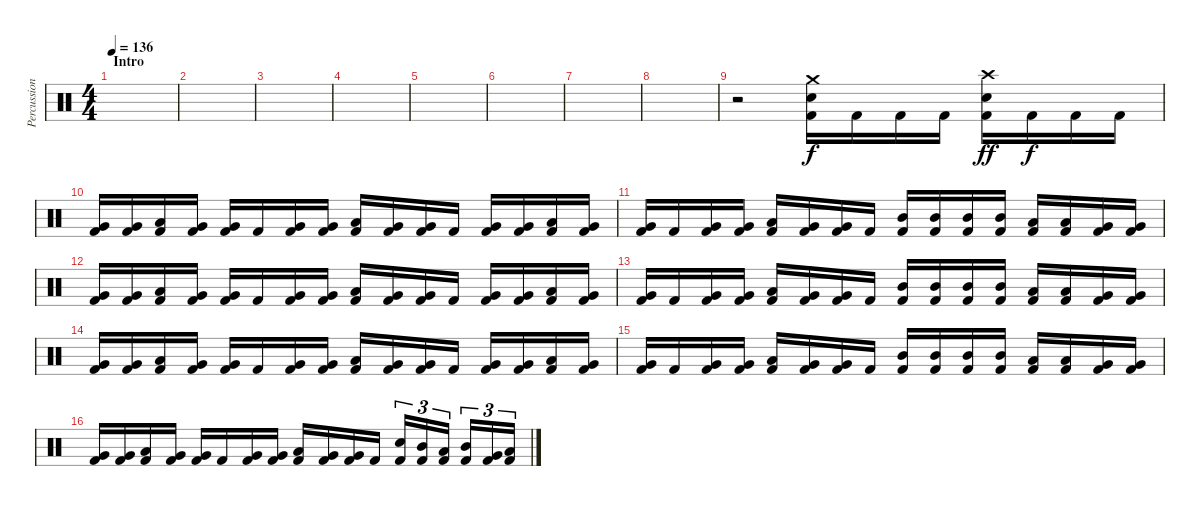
\track ("Percussions" "Percussion") {instrument percussion}
\staff {score}
\articulation defaults
\ts (4 4)
\section ("" "Intro")
\tempo 136
\clef neutral
\ks c
|
|
|
|
|
|
|
|
r.2 ("Crash medium (hit)" "Electric Snare (hit)" "Kick (hit) 2").16 "Kick (hit) 2".16{dy f} "Kick (hit) 2".16 "Kick (hit) 2".16 ("Crash high (hit)" "Electric Snare (hit)" "Kick (hit) 2").16{dy ff} "Kick (hit) 2".16{dy f} "Kick (hit) 2".16 "Kick (hit) 2".16 |
("Very Low Tom (hit)" "Kick (hit) 2").16 ("Very Low Tom (hit)" "Kick (hit) 2").16 ("Low Tom (hit)" "Kick (hit) 2").16 ("Very Low Tom (hit)" "Kick (hit) 2").16 ("Very Low Tom (hit)" "Kick (hit) 2").16 "Kick (hit) 2".16 ("Very Low Tom (hit)" "Kick (hit) 2").16 ("Very Low Tom (hit)" "Kick (hit) 2").16 ("Low Tom (hit)" "Kick (hit) 2").16 ("Very Low Tom (hit)" "Kick (hit) 2").16 ("Very Low Tom (hit)" "Kick (hit) 2").16 "Kick (hit) 2".16 ("Very Low Tom (hit)" "Kick (hit) 2").16 ("Very Low Tom (hit)" "Kick (hit) 2").16 ("Low Tom (hit)" "Kick (hit) 2").16 ("Very Low Tom (hit)" "Kick (hit) 2").16 |
("Very Low Tom (hit)" "Kick (hit) 2").16 "Kick (hit) 2".16 ("Very Low Tom (hit)" "Kick (hit) 2").16 ("Very Low Tom (hit)" "Kick (hit) 2").16 ("Low Tom (hit)" "Kick (hit) 2").16 ("Very Low Tom (hit)" "Kick (hit) 2").16 ("Very Low Tom (hit)" "Kick (hit) 2").16 "Kick (hit) 2".16 ("Mid Tom (hit)" "Kick (hit) 2").16 ("Mid Tom (hit)" "Kick (hit) 2").16 ("Mid Tom (hit)" "Kick (hit) 2").16 ("Mid Tom (hit)" "Kick (hit) 2").16 ("Low Tom (hit)" "Kick (hit) 2").16 ("Low Tom (hit)" "Kick (hit) 2").16 ("Very Low Tom (hit)" "Kick (hit) 2").16 ("Very Low Tom (hit)" "Kick (hit) 2").16 |
("Very Low Tom (hit)" "Kick (hit) 2").16 ("Very Low Tom (hit)" "Kick (hit) 2").16 ("Low Tom (hit)" "Kick (hit) 2").16 ("Very Low Tom (hit)" "Kick (hit) 2").16 ("Very Low Tom (hit)" "Kick (hit) 2").16 "Kick (hit) 2".16 ("Very Low Tom (hit)" "Kick (hit) 2").16 ("Very Low Tom (hit)" "Kick (hit) 2").16 ("Low Tom (hit)" "Kick (hit) 2").16 ("Very Low Tom (hit)" "Kick (hit) 2").16 ("Very Low Tom (hit)" "Kick (hit) 2").16 "Kick (hit) 2".16 ("Very Low Tom (hit)" "Kick (hit) 2").16 ("Very Low Tom (hit)" "Kick (hit) 2").16 ("Low Tom (hit)" "Kick (hit) 2").16 ("Very Low Tom (hit)" "Kick (hit) 2").16 |
("Very Low Tom (hit)" "Kick (hit) 2").16 "Kick (hit) 2".16 ("Very Low Tom (hit)" "Kick (hit) 2").16 ("Very Low Tom (hit)" "Kick (hit) 2").16 ("Low Tom (hit)" "Kick (hit) 2").16 ("Very Low Tom (hit)" "Kick (hit) 2").16 ("Very Low Tom (hit)" "Kick (hit) 2").16 "Kick (hit) 2".16 ("Mid Tom (hit)" "Kick (hit) 2").16 ("Mid Tom (hit)" "Kick (hit) 2").16 ("Mid Tom (hit)" "Kick (hit) 2").16 ("Mid Tom (hit)" "Kick (hit) 2").16 ("Low Tom (hit)" "Kick (hit) 2").16 ("Low Tom (hit)" "Kick (hit) 2").16 ("Very Low Tom (hit)" "Kick (hit) 2").16 ("Very Low Tom (hit)" "Kick (hit) 2").16 |
("Very Low Tom (hit)" "Kick (hit) 2").16 ("Very Low Tom (hit)" "Kick (hit) 2").16 ("Low Tom (hit)" "Kick (hit) 2").16 ("Very Low Tom (hit)" "Kick (hit) 2").16 ("Very Low Tom (hit)" "Kick (hit) 2").16 "Kick (hit) 2".16 ("Very Low Tom (hit)" "Kick (hit) 2").16 ("Very Low Tom (hit)" "Kick (hit) 2").16 ("Low Tom (hit)" "Kick (hit) 2").16 ("Very Low Tom (hit)" "Kick (hit) 2").16 ("Very Low Tom (hit)" "Kick (hit) 2").16 "Kick (hit) 2".16 ("Very Low Tom (hit)" "Kick (hit) 2").16 ("Very Low Tom (hit)" "Kick (hit) 2").16 ("Low Tom (hit)" "Kick (hit) 2").16 ("Very Low Tom (hit)" "Kick (hit) 2").16 |
("Very Low Tom (hit)" "Kick (hit) 2").16 "Kick (hit) 2".16 ("Very Low Tom (hit)" "Kick (hit) 2").16 ("Very Low Tom (hit)" "Kick (hit) 2").16 ("Low Tom (hit)" "Kick (hit) 2").16 ("Very Low Tom (hit)" "Kick (hit) 2").16 ("Very Low Tom (hit)" "Kick (hit) 2").16 "Kick (hit) 2".16 ("Mid Tom (hit)" "Kick (hit) 2").16 ("Mid Tom (hit)" "Kick (hit) 2").16 ("Mid Tom (hit)" "Kick (hit) 2").16 ("Mid Tom (hit)" "Kick (hit) 2").16 ("Low Tom (hit)" "Kick (hit) 2").16 ("Low Tom (hit)" "Kick (hit) 2").16 ("Very Low Tom (hit)" "Kick (hit) 2").16 ("Very Low Tom (hit)" "Kick (hit) 2").16 |
("Very Low Tom (hit)" "Kick (hit) 2").16 ("Very Low Tom (hit)" "Kick (hit) 2").16 ("Low Tom (hit)" "Kick (hit) 2").16 ("Very Low Tom (hit)" "Kick (hit) 2").16 ("Very Low Tom (hit)" "Kick (hit) 2").16 "Kick (hit) 2".16 ("Very Low Tom (hit)" "Kick (hit) 2").16 ("Very Low Tom (hit)" "Kick (hit) 2").16 ("Low Tom (hit)" "Kick (hit) 2").16 ("Very Low Tom (hit)" "Kick (hit) 2").16 ("Very Low Tom (hit)" "Kick (hit) 2").16 "Kick (hit) 2".16 ("Electric Snare (hit)" "Kick (hit) 2").16{tu (3 2)} ("Mid Tom (hit)" "Kick (hit) 2").16{tu (3 2)} ("Low Tom (hit)" "Kick (hit) 2").16{tu (3 2)} ("Mid Tom (hit)" "Kick (hit) 2").16{tu (3 2)} ("Very Low Tom (hit)" "Kick (hit) 2").16{tu (3 2)} ("Low Tom (hit)" "Kick (hit) 2").16{tu (3 2)}
